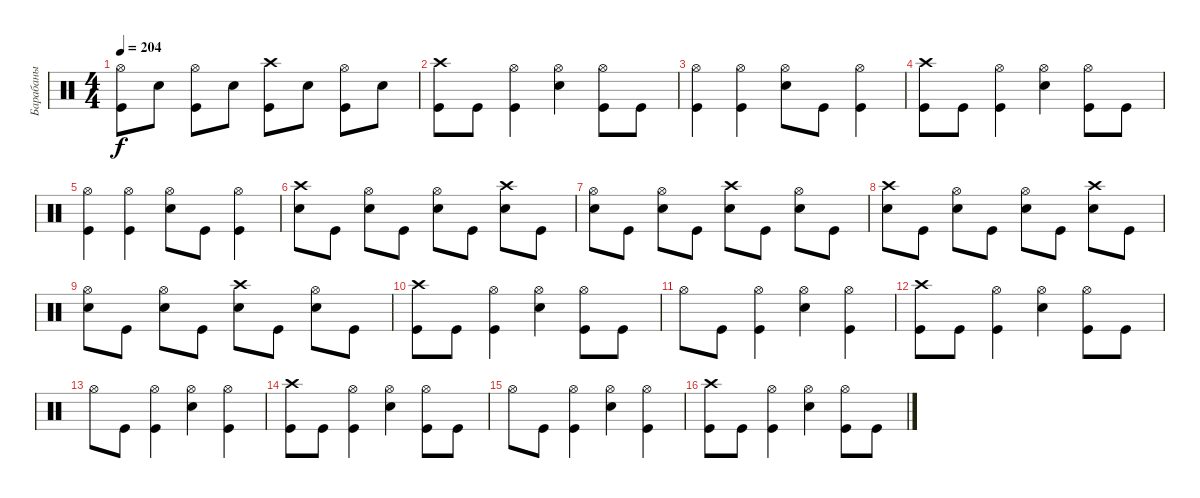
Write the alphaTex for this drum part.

\track ("Барабаны" "Барабаны") {instrument percussion}
\staff {score}
\articulation defaults
\ts (4 4)
\tempo 204
\clef neutral
\ks c
("Hi-Hat (open)" "Kick (hit)").8{dy f} "Electric Snare (hit)".8 ("Hi-Hat (open)" "Kick (hit)").8 "Electric Snare (hit)".8 ("Crash high (hit)" "Kick (hit)").8 "Electric Snare (hit)".8 ("Hi-Hat (open)" "Kick (hit)").8 "Electric Snare (hit)".8 |
("Crash high (hit)" "Kick (hit)").8 "Kick (hit)".8 ("Hi-Hat (open)" "Kick (hit)").4 ("Hi-Hat (open)" "Electric Snare (hit)").4 ("Hi-Hat (open)" "Kick (hit)").8 "Kick (hit)".8 |
("Hi-Hat (open)" "Kick (hit)").4 ("Hi-Hat (open)" "Kick (hit)").4 ("Hi-Hat (open)" "Electric Snare (hit)").8 "Kick (hit)".8 ("Hi-Hat (open)" "Kick (hit)").4 |
("Crash high (hit)" "Kick (hit)").8 "Kick (hit)".8 ("Hi-Hat (open)" "Kick (hit)").4 ("Hi-Hat (open)" "Electric Snare (hit)").4 ("Hi-Hat (open)" "Kick (hit)").8 "Kick (hit)".8 |
("Hi-Hat (open)" "Kick (hit)").4 ("Hi-Hat (open)" "Kick (hit)").4 ("Hi-Hat (open)" "Electric Snare (hit)").8 "Kick (hit)".8 ("Hi-Hat (open)" "Kick (hit)").4 |
("Crash high (hit)" "Electric Snare (hit)").8 "Kick (hit)".8 ("Hi-Hat (open)" "Electric Snare (hit)").8 "Kick (hit)".8 ("Hi-Hat (open)" "Electric Snare (hit)").8 "Kick (hit)".8 ("Crash high (hit)" "Electric Snare (hit)").8 "Kick (hit)".8 |
("Hi-Hat (open)" "Electric Snare (hit)").8 "Kick (hit)".8 ("Hi-Hat (open)" "Electric Snare (hit)").8 "Kick (hit)".8 ("Crash high (hit)" "Electric Snare (hit)").8 "Kick (hit)".8 ("Hi-Hat (open)" "Electric Snare (hit)").8 "Kick (hit)".8 |
("Crash high (hit)" "Electric Snare (hit)").8 "Kick (hit)".8 ("Hi-Hat (open)" "Electric Snare (hit)").8 "Kick (hit)".8 ("Hi-Hat (open)" "Electric Snare (hit)").8 "Kick (hit)".8 ("Crash high (hit)" "Electric Snare (hit)").8 "Kick (hit)".8 |
("Hi-Hat (open)" "Electric Snare (hit)").8 "Kick (hit)".8 ("Hi-Hat (open)" "Electric Snare (hit)").8 "Kick (hit)".8 ("Crash high (hit)" "Electric Snare (hit)").8 "Kick (hit)".8 ("Hi-Hat (open)" "Electric Snare (hit)").8 "Kick (hit)".8 |
("Crash high (hit)" "Kick (hit)").8 "Kick (hit)".8 ("Hi-Hat (open)" "Kick (hit)").4 ("Hi-Hat (open)" "Electric Snare (hit)").4 ("Hi-Hat (open)" "Kick (hit)").8 "Kick (hit)".8 |
"Hi-Hat (open)".8 "Kick (hit)".8 ("Hi-Hat (open)" "Kick (hit)").4 ("Hi-Hat (open)" "Electric Snare (hit)").4 ("Hi-Hat (open)" "Kick (hit)").4 |
("Crash high (hit)" "Kick (hit)").8 "Kick (hit)".8 ("Hi-Hat (open)" "Kick (hit)").4 ("Hi-Hat (open)" "Electric Snare (hit)").4 ("Hi-Hat (open)" "Kick (hit)").8 "Kick (hit)".8 |
"Hi-Hat (open)".8 "Kick (hit)".8 ("Hi-Hat (open)" "Kick (hit)").4 ("Hi-Hat (open)" "Electric Snare (hit)").4 ("Hi-Hat (open)" "Kick (hit)").4 |
("Crash high (hit)" "Kick (hit)").8 "Kick (hit)".8 ("Hi-Hat (open)" "Kick (hit)").4 ("Hi-Hat (open)" "Electric Snare (hit)").4 ("Hi-Hat (open)" "Kick (hit)").8 "Kick (hit)".8 |
"Hi-Hat (open)".8 "Kick (hit)".8 ("Hi-Hat (open)" "Kick (hit)").4 ("Hi-Hat (open)" "Electric Snare (hit)").4 ("Hi-Hat (open)" "Kick (hit)").4 |
("Crash high (hit)" "Kick (hit)").8 "Kick (hit)".8 ("Hi-Hat (open)" "Kick (hit)").4 ("Hi-Hat (open)" "Electric Snare (hit)").4 ("Hi-Hat (open)" "Kick (hit)").8 "Kick (hit)".8
